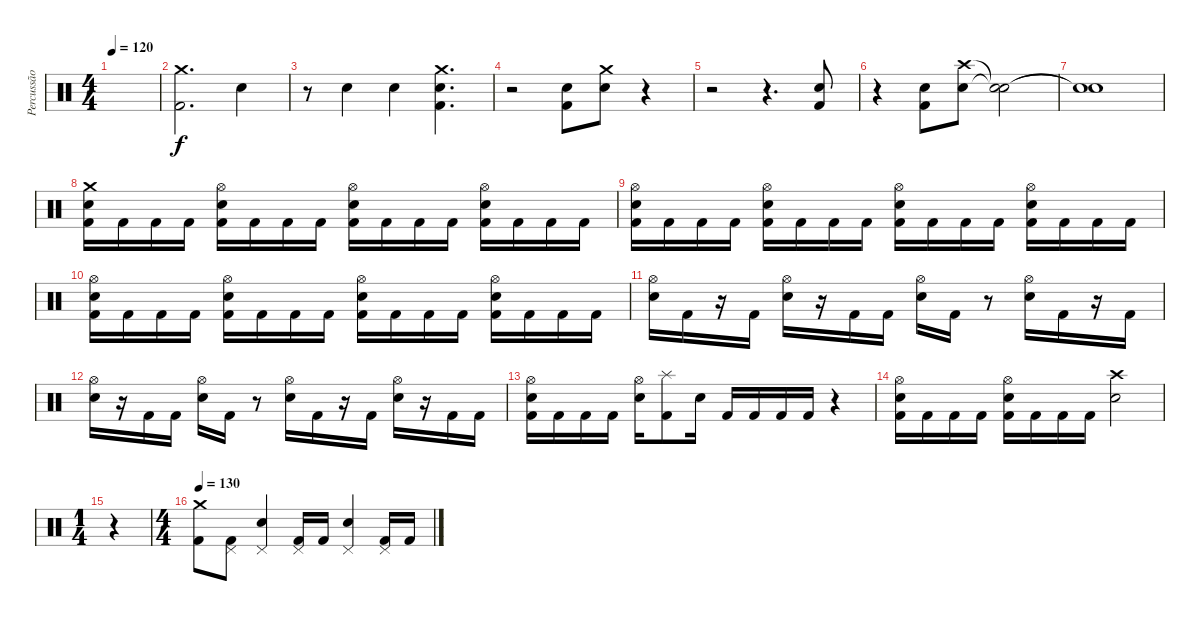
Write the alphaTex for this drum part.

\track ("Percussão" "Percussão") {instrument percussion}
\staff {score}
\articulation defaults
\ts (4 4)
\tempo 120
\clef neutral
\ks c
|
("Crash medium (hit)" "Kick (hit) 2").2{d} "Electric Snare (hit)".4 |
r.8 "Electric Snare (hit)".4 "Electric Snare (hit)".4 ("Crash medium (hit)" "Electric Snare (hit)" "Kick (hit) 2").4{d} |
r.2 ("Electric Snare (hit)" "Kick (hit) 2").8 ("Crash medium (hit)" "Electric Snare (hit)").8 r.4 |
r.2 r.4{d} ("Electric Snare (hit)" "Kick (hit) 2").8 |
r.4 ("Electric Snare (hit)" "Kick (hit) 2").8 ("Crash high (hit)" "Electric Snare (hit)").8 ("Snare (hit)"{t} "Snare (hit)"{t}).2 |
("Snare (hit)"{t} "Snare (hit)"{t}).1 |
("Crash medium (hit)" "Electric Snare (hit)" "Kick (hit) 2").16 "Kick (hit) 2".16 "Kick (hit) 2".16 "Kick (hit) 2".16 ("Hi-Hat (open)" "Electric Snare (hit)" "Kick (hit) 2").16 "Kick (hit) 2".16 "Kick (hit) 2".16 "Kick (hit) 2".16 ("Hi-Hat (open)" "Electric Snare (hit)" "Kick (hit) 2").16 "Kick (hit) 2".16 "Kick (hit) 2".16 "Kick (hit) 2".16 ("Hi-Hat (open)" "Electric Snare (hit)" "Kick (hit) 2").16 "Kick (hit) 2".16 "Kick (hit) 2".16 "Kick (hit) 2".16 |
("Hi-Hat (open)" "Electric Snare (hit)" "Kick (hit) 2").16 "Kick (hit) 2".16 "Kick (hit) 2".16 "Kick (hit) 2".16 ("Hi-Hat (open)" "Electric Snare (hit)" "Kick (hit) 2").16 "Kick (hit) 2".16 "Kick (hit) 2".16 "Kick (hit) 2".16 ("Hi-Hat (open)" "Electric Snare (hit)" "Kick (hit) 2").16 "Kick (hit) 2".16 "Kick (hit) 2".16 "Kick (hit) 2".16 ("Hi-Hat (open)" "Electric Snare (hit)" "Kick (hit) 2").16 "Kick (hit) 2".16 "Kick (hit) 2".16 "Kick (hit) 2".16 |
("Hi-Hat (open)" "Electric Snare (hit)" "Kick (hit) 2").16 "Kick (hit) 2".16 "Kick (hit) 2".16 "Kick (hit) 2".16 ("Hi-Hat (open)" "Electric Snare (hit)" "Kick (hit) 2").16 "Kick (hit) 2".16 "Kick (hit) 2".16 "Kick (hit) 2".16 ("Hi-Hat (open)" "Electric Snare (hit)" "Kick (hit) 2").16 "Kick (hit) 2".16 "Kick (hit) 2".16 "Kick (hit) 2".16 ("Hi-Hat (open)" "Electric Snare (hit)" "Kick (hit) 2").16 "Kick (hit) 2".16 "Kick (hit) 2".16 "Kick (hit) 2".16 |
("Hi-Hat (open)" "Electric Snare (hit)").16 "Kick (hit) 2".16 r.16 "Kick (hit) 2".16 ("Hi-Hat (open)" "Electric Snare (hit)").16 r.16 "Kick (hit) 2".16 "Kick (hit) 2".16 ("Hi-Hat (open)" "Electric Snare (hit)").16 "Kick (hit) 2".16 r.8 ("Hi-Hat (open)" "Electric Snare (hit)").16 "Kick (hit) 2".16 r.16 "Kick (hit) 2".16 |
("Hi-Hat (open)" "Electric Snare (hit)").16 r.16 "Kick (hit) 2".16 "Kick (hit) 2".16 ("Hi-Hat (open)" "Electric Snare (hit)").16 "Kick (hit) 2".16 r.8 ("Hi-Hat (open)" "Electric Snare (hit)").16 "Kick (hit) 2".16 r.16 "Kick (hit) 2".16 ("Hi-Hat (open)" "Electric Snare (hit)").16 r.16 "Kick (hit) 2".16 "Kick (hit) 2".16 |
("Hi-Hat (open)" "Electric Snare (hit)" "Kick (hit) 2").16 "Kick (hit) 2".16 "Kick (hit) 2".16 "Kick (hit) 2".16 ("Hi-Hat (open)" "Electric Snare (hit)").16 ("Splash (hit)" "Kick (hit) 2").8 "Electric Snare (hit)".16 "Kick (hit) 2".16 "Kick (hit) 2".16 "Kick (hit) 2".16 "Kick (hit) 2".16 r.4 |
("Hi-Hat (open)" "Electric Snare (hit)" "Kick (hit) 2").16 "Kick (hit) 2".16 "Kick (hit) 2".16 "Kick (hit) 2".16 ("Hi-Hat (open)" "Electric Snare (hit)" "Kick (hit) 2").16 "Kick (hit) 2".16 "Kick (hit) 2".16 "Kick (hit) 2".16 ("Crash high (hit)" "Electric Snare (hit)").2 |
\ts (1 4)
r.4 |
\ts (4 4)
\tempo 130
("Crash medium (hit)" "Kick (hit) 2").8 ("Pedal Hi-Hat (hit)" "Kick (hit) 2").8 ("Pedal Hi-Hat (hit)" "Electric Snare (hit)").4 ("Pedal Hi-Hat (hit)" "Kick (hit) 2").16 "Kick (hit) 2".16 ("Pedal Hi-Hat (hit)" "Electric Snare (hit)").4 ("Pedal Hi-Hat (hit)" "Kick (hit) 2").16 "Kick (hit) 2".16
